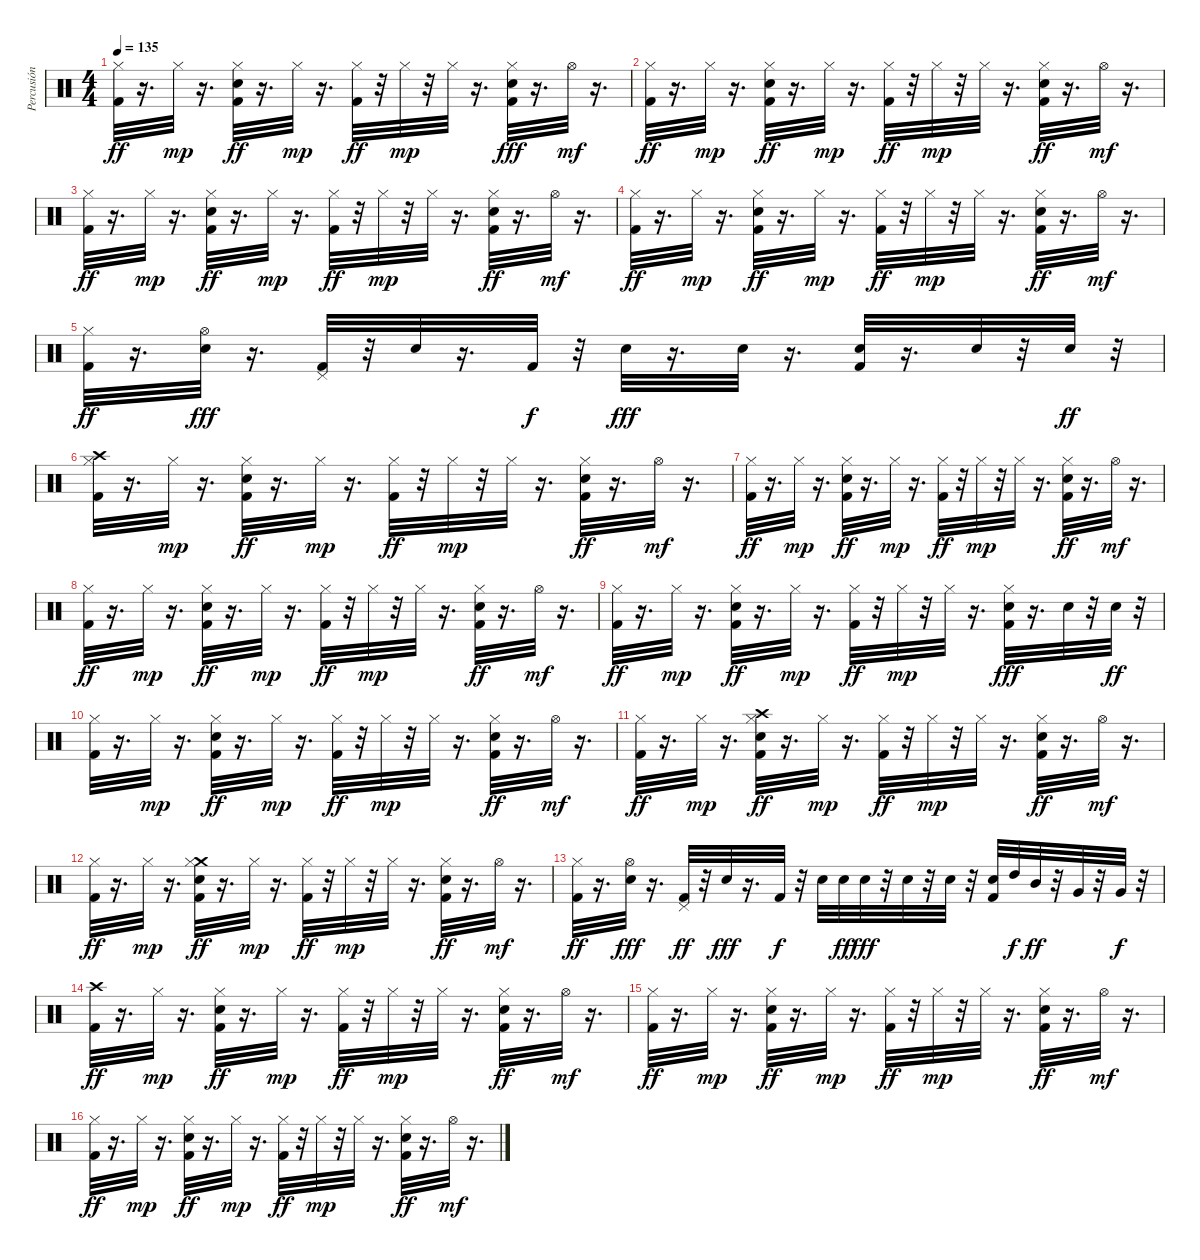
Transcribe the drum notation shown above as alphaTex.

\track ("Percusión" "Percusión") {instrument percussion}
\staff {score}
\articulation defaults
\ts (4 4)
\tempo 135
\clef neutral
\ks c
("Hi-Hat (closed)" "Kick (hit) 2").32{dy ff} r.16{d} "Hi-Hat (closed)".32{dy mp} r.16{d} ("Hi-Hat (closed)" "Electric Snare (hit)" "Kick (hit) 2").32{dy ff} r.16{d} "Hi-Hat (closed)".32{dy mp} r.16{d} ("Hi-Hat (closed)" "Kick (hit) 2").32{dy ff} r.32 "Hi-Hat (closed)".32{dy mp} r.32 "Hi-Hat (closed)".32 r.16{d} ("Hi-Hat (closed)" "Electric Snare (hit)" "Kick (hit) 2").32{dy fff} r.16{d} "Hi-Hat (open)".32{dy mf} r.16{d} |
("Hi-Hat (closed)" "Kick (hit) 2").32{dy ff} r.16{d} "Hi-Hat (closed)".32{dy mp} r.16{d} ("Hi-Hat (closed)" "Electric Snare (hit)" "Kick (hit) 2").32{dy ff} r.16{d} "Hi-Hat (closed)".32{dy mp} r.16{d} ("Hi-Hat (closed)" "Kick (hit) 2").32{dy ff} r.32 "Hi-Hat (closed)".32{dy mp} r.32 "Hi-Hat (closed)".32 r.16{d} ("Hi-Hat (closed)" "Electric Snare (hit)" "Kick (hit) 2").32{dy ff} r.16{d} "Hi-Hat (open)".32{dy mf} r.16{d} |
("Hi-Hat (closed)" "Kick (hit) 2").32{dy ff} r.16{d} "Hi-Hat (closed)".32{dy mp} r.16{d} ("Hi-Hat (closed)" "Electric Snare (hit)" "Kick (hit) 2").32{dy ff} r.16{d} "Hi-Hat (closed)".32{dy mp} r.16{d} ("Hi-Hat (closed)" "Kick (hit) 2").32{dy ff} r.32 "Hi-Hat (closed)".32{dy mp} r.32 "Hi-Hat (closed)".32 r.16{d} ("Hi-Hat (closed)" "Electric Snare (hit)" "Kick (hit) 2").32{dy ff} r.16{d} "Hi-Hat (open)".32{dy mf} r.16{d} |
("Hi-Hat (closed)" "Kick (hit) 2").32{dy ff} r.16{d} "Hi-Hat (closed)".32{dy mp} r.16{d} ("Hi-Hat (closed)" "Electric Snare (hit)" "Kick (hit) 2").32{dy ff} r.16{d} "Hi-Hat (closed)".32{dy mp} r.16{d} ("Hi-Hat (closed)" "Kick (hit) 2").32{dy ff} r.32 "Hi-Hat (closed)".32{dy mp} r.32 "Hi-Hat (closed)".32 r.16{d} ("Hi-Hat (closed)" "Electric Snare (hit)" "Kick (hit) 2").32{dy ff} r.16{d} "Hi-Hat (open)".32{dy mf} r.16{d} |
("Hi-Hat (closed)" "Kick (hit) 2").32{dy ff} r.16{d} ("Hi-Hat (open)" "Electric Snare (hit)").32{dy fff} r.16{d} ("Pedal Hi-Hat (hit)" "Kick (hit) 2").32 r.32 "Electric Snare (hit)".32 r.16{d} "Kick (hit) 2".32{dy f} r.32 "Electric Snare (hit)".32{dy fff} r.16{d} "Electric Snare (hit)".32 r.16{d} ("Electric Snare (hit)" "Kick (hit) 2").32 r.16{d} "Electric Snare (hit)".32 r.32 "Electric Snare (hit)".32{dy ff} r.32 |
("Crash high (hit)" "Hi-Hat (closed)" "Kick (hit) 2").32 r.16{d} "Hi-Hat (closed)".32{dy mp} r.16{d} ("Hi-Hat (closed)" "Electric Snare (hit)" "Kick (hit) 2").32{dy ff} r.16{d} "Hi-Hat (closed)".32{dy mp} r.16{d} ("Hi-Hat (closed)" "Kick (hit) 2").32{dy ff} r.32 "Hi-Hat (closed)".32{dy mp} r.32 "Hi-Hat (closed)".32 r.16{d} ("Hi-Hat (closed)" "Electric Snare (hit)" "Kick (hit) 2").32{dy ff} r.16{d} "Hi-Hat (open)".32{dy mf} r.16{d} |
("Hi-Hat (closed)" "Kick (hit) 2").32{dy ff} r.16{d} "Hi-Hat (closed)".32{dy mp} r.16{d} ("Hi-Hat (closed)" "Electric Snare (hit)" "Kick (hit) 2").32{dy ff} r.16{d} "Hi-Hat (closed)".32{dy mp} r.16{d} ("Hi-Hat (closed)" "Kick (hit) 2").32{dy ff} r.32 "Hi-Hat (closed)".32{dy mp} r.32 "Hi-Hat (closed)".32 r.16{d} ("Hi-Hat (closed)" "Electric Snare (hit)" "Kick (hit) 2").32{dy ff} r.16{d} "Hi-Hat (open)".32{dy mf} r.16{d} |
("Hi-Hat (closed)" "Kick (hit) 2").32{dy ff} r.16{d} "Hi-Hat (closed)".32{dy mp} r.16{d} ("Hi-Hat (closed)" "Electric Snare (hit)" "Kick (hit) 2").32{dy ff} r.16{d} "Hi-Hat (closed)".32{dy mp} r.16{d} ("Hi-Hat (closed)" "Kick (hit) 2").32{dy ff} r.32 "Hi-Hat (closed)".32{dy mp} r.32 "Hi-Hat (closed)".32 r.16{d} ("Hi-Hat (closed)" "Electric Snare (hit)" "Kick (hit) 2").32{dy ff} r.16{d} "Hi-Hat (open)".32{dy mf} r.16{d} |
("Hi-Hat (closed)" "Kick (hit) 2").32{dy ff} r.16{d} "Hi-Hat (closed)".32{dy mp} r.16{d} ("Hi-Hat (closed)" "Electric Snare (hit)" "Kick (hit) 2").32{dy ff} r.16{d} "Hi-Hat (closed)".32{dy mp} r.16{d} ("Hi-Hat (closed)" "Kick (hit) 2").32{dy ff} r.32 "Hi-Hat (closed)".32{dy mp} r.32 "Hi-Hat (closed)".32 r.16{d} ("Hi-Hat (closed)" "Electric Snare (hit)" "Kick (hit) 2").32{dy fff} r.16{d} "Electric Snare (hit)".32 r.32 "Electric Snare (hit)".32{dy ff} r.32 |
("Hi-Hat (closed)" "Kick (hit) 2").32 r.16{d} "Hi-Hat (closed)".32{dy mp} r.16{d} ("Hi-Hat (closed)" "Electric Snare (hit)" "Kick (hit) 2").32{dy ff} r.16{d} "Hi-Hat (closed)".32{dy mp} r.16{d} ("Hi-Hat (closed)" "Kick (hit) 2").32{dy ff} r.32 "Hi-Hat (closed)".32{dy mp} r.32 "Hi-Hat (closed)".32 r.16{d} ("Hi-Hat (closed)" "Electric Snare (hit)" "Kick (hit) 2").32{dy ff} r.16{d} "Hi-Hat (open)".32{dy mf} r.16{d} |
("Hi-Hat (closed)" "Kick (hit) 2").32{dy ff} r.16{d} "Hi-Hat (closed)".32{dy mp} r.16{d} ("Crash high (hit)" "Hi-Hat (closed)" "Electric Snare (hit)" "Kick (hit) 2").32{dy ff} r.16{d} "Hi-Hat (closed)".32{dy mp} r.16{d} ("Hi-Hat (closed)" "Kick (hit) 2").32{dy ff} r.32 "Hi-Hat (closed)".32{dy mp} r.32 "Hi-Hat (closed)".32 r.16{d} ("Hi-Hat (closed)" "Electric Snare (hit)" "Kick (hit) 2").32{dy ff} r.16{d} "Hi-Hat (open)".32{dy mf} r.16{d} |
("Hi-Hat (closed)" "Kick (hit) 2").32{dy ff} r.16{d} "Hi-Hat (closed)".32{dy mp} r.16{d} ("Crash medium (hit)" "Hi-Hat (closed)" "Electric Snare (hit)" "Kick (hit) 2").32{dy ff} r.16{d} "Hi-Hat (closed)".32{dy mp} r.16{d} ("Hi-Hat (closed)" "Kick (hit) 2").32{dy ff} r.32 "Hi-Hat (closed)".32{dy mp} r.32 "Hi-Hat (closed)".32 r.16{d} ("Hi-Hat (closed)" "Electric Snare (hit)" "Kick (hit) 2").32{dy ff} r.16{d} "Hi-Hat (open)".32{dy mf} r.16{d} |
("Hi-Hat (closed)" "Kick (hit) 2").32{dy ff} r.16{d} ("Hi-Hat (open)" "Electric Snare (hit)").32{dy fff} r.16{d} ("Pedal Hi-Hat (hit)" "Kick (hit) 2").32{dy ff} r.32 "Electric Snare (hit)".32{dy fff} r.16{d} "Kick (hit) 2".32{dy f} r.32 "Electric Snare (hit)".32 "Electric Snare (hit)".32{dy ff} "Electric Snare (hit)".32{dy fff} r.32 "Electric Snare (hit)".32 r.32 "Electric Snare (hit)".32 r.32 ("Electric Snare (hit)" "Kick (hit) 2").32 "High Tom (hit)".32{dy f} "Mid Tom (hit)".32{dy ff} r.32 "Very Low Tom (hit)".32 r.32 "Very Low Tom (hit)".32{dy f} r.32 |
("Crash high (hit)" "Kick (hit) 2").32{dy ff} r.16{d} "Hi-Hat (closed)".32{dy mp} r.16{d} ("Hi-Hat (closed)" "Electric Snare (hit)" "Kick (hit) 2").32{dy ff} r.16{d} "Hi-Hat (closed)".32{dy mp} r.16{d} ("Hi-Hat (closed)" "Kick (hit) 2").32{dy ff} r.32 "Hi-Hat (closed)".32{dy mp} r.32 "Hi-Hat (closed)".32 r.16{d} ("Hi-Hat (closed)" "Electric Snare (hit)" "Kick (hit) 2").32{dy ff} r.16{d} "Hi-Hat (open)".32{dy mf} r.16{d} |
("Hi-Hat (closed)" "Kick (hit) 2").32{dy ff} r.16{d} "Hi-Hat (closed)".32{dy mp} r.16{d} ("Hi-Hat (closed)" "Electric Snare (hit)" "Kick (hit) 2").32{dy ff} r.16{d} "Hi-Hat (closed)".32{dy mp} r.16{d} ("Hi-Hat (closed)" "Kick (hit) 2").32{dy ff} r.32 "Hi-Hat (closed)".32{dy mp} r.32 "Hi-Hat (closed)".32 r.16{d} ("Hi-Hat (closed)" "Electric Snare (hit)" "Kick (hit) 2").32{dy ff} r.16{d} "Hi-Hat (open)".32{dy mf} r.16{d} |
("Hi-Hat (closed)" "Kick (hit) 2").32{dy ff} r.16{d} "Hi-Hat (closed)".32{dy mp} r.16{d} ("Hi-Hat (closed)" "Electric Snare (hit)" "Kick (hit) 2").32{dy ff} r.16{d} "Hi-Hat (closed)".32{dy mp} r.16{d} ("Hi-Hat (closed)" "Kick (hit) 2").32{dy ff} r.32 "Hi-Hat (closed)".32{dy mp} r.32 "Hi-Hat (closed)".32 r.16{d} ("Hi-Hat (closed)" "Electric Snare (hit)" "Kick (hit) 2").32{dy ff} r.16{d} "Hi-Hat (open)".32{dy mf} r.16{d}
